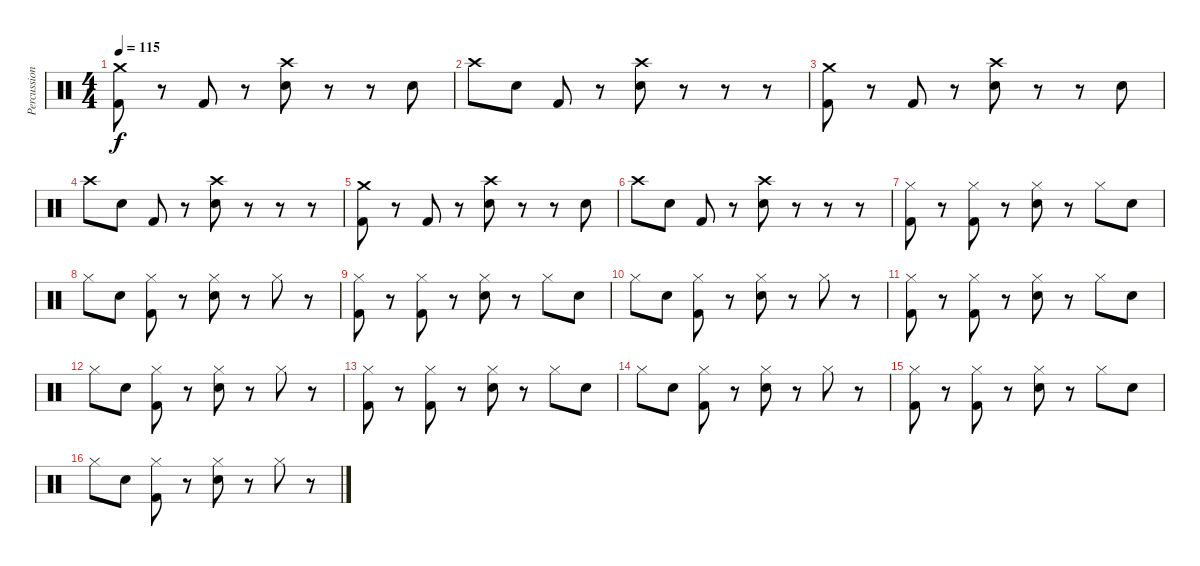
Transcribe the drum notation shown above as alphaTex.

\track ("Percussion" "Percussion") {instrument percussion}
\staff {score}
\articulation defaults
\ts (4 4)
\tempo 115
\clef neutral
\ks c
("Kick (hit) 2" "Crash medium (hit)").8{dy f} r.8 "Kick (hit) 2".8 r.8 ("Electric Snare (hit)" "Crash high (hit)").8 r.8 r.8 "Electric Snare (hit)".8 |
"Crash high (hit)".8 "Electric Snare (hit)".8 "Kick (hit) 2".8 r.8 ("Electric Snare (hit)" "Crash high (hit)").8 r.8 r.8 r.8 |
("Kick (hit) 2" "Crash medium (hit)").8 r.8 "Kick (hit) 2".8 r.8 ("Electric Snare (hit)" "Crash high (hit)").8 r.8 r.8 "Electric Snare (hit)".8 |
"Crash high (hit)".8 "Electric Snare (hit)".8 "Kick (hit) 2".8 r.8 ("Electric Snare (hit)" "Crash high (hit)").8 r.8 r.8 r.8 |
("Kick (hit) 2" "Crash medium (hit)").8 r.8 "Kick (hit) 2".8 r.8 ("Electric Snare (hit)" "Crash high (hit)").8 r.8 r.8 "Electric Snare (hit)".8 |
"Crash high (hit)".8 "Electric Snare (hit)".8 "Kick (hit) 2".8 r.8 ("Electric Snare (hit)" "Crash high (hit)").8 r.8 r.8 r.8 |
("Kick (hit) 2" "Hi-Hat (closed)").8 r.8 ("Kick (hit) 2" "Hi-Hat (closed)").8 r.8 ("Electric Snare (hit)" "Hi-Hat (closed)").8 r.8 "Hi-Hat (closed)".8 "Electric Snare (hit)".8 |
"Hi-Hat (closed)".8 "Electric Snare (hit)".8 ("Kick (hit) 2" "Hi-Hat (closed)").8 r.8 ("Electric Snare (hit)" "Hi-Hat (closed)").8 r.8 "Hi-Hat (closed)".8 r.8 |
("Kick (hit) 2" "Hi-Hat (closed)").8 r.8 ("Kick (hit) 2" "Hi-Hat (closed)").8 r.8 ("Electric Snare (hit)" "Hi-Hat (closed)").8 r.8 "Hi-Hat (closed)".8 "Electric Snare (hit)".8 |
"Hi-Hat (closed)".8 "Electric Snare (hit)".8 ("Kick (hit) 2" "Hi-Hat (closed)").8 r.8 ("Electric Snare (hit)" "Hi-Hat (closed)").8 r.8 "Hi-Hat (closed)".8 r.8 |
("Kick (hit) 2" "Hi-Hat (closed)").8 r.8 ("Kick (hit) 2" "Hi-Hat (closed)").8 r.8 ("Electric Snare (hit)" "Hi-Hat (closed)").8 r.8 "Hi-Hat (closed)".8 "Electric Snare (hit)".8 |
"Hi-Hat (closed)".8 "Electric Snare (hit)".8 ("Kick (hit) 2" "Hi-Hat (closed)").8 r.8 ("Electric Snare (hit)" "Hi-Hat (closed)").8 r.8 "Hi-Hat (closed)".8 r.8 |
("Kick (hit) 2" "Hi-Hat (closed)").8 r.8 ("Kick (hit) 2" "Hi-Hat (closed)").8 r.8 ("Electric Snare (hit)" "Hi-Hat (closed)").8 r.8 "Hi-Hat (closed)".8 "Electric Snare (hit)".8 |
"Hi-Hat (closed)".8 "Electric Snare (hit)".8 ("Kick (hit) 2" "Hi-Hat (closed)").8 r.8 ("Electric Snare (hit)" "Hi-Hat (closed)").8 r.8 "Hi-Hat (closed)".8 r.8 |
("Kick (hit) 2" "Hi-Hat (closed)").8 r.8 ("Kick (hit) 2" "Hi-Hat (closed)").8 r.8 ("Electric Snare (hit)" "Hi-Hat (closed)").8 r.8 "Hi-Hat (closed)".8 "Electric Snare (hit)".8 |
"Hi-Hat (closed)".8 "Electric Snare (hit)".8 ("Kick (hit) 2" "Hi-Hat (closed)").8 r.8 ("Electric Snare (hit)" "Hi-Hat (closed)").8 r.8 "Hi-Hat (closed)".8 r.8
